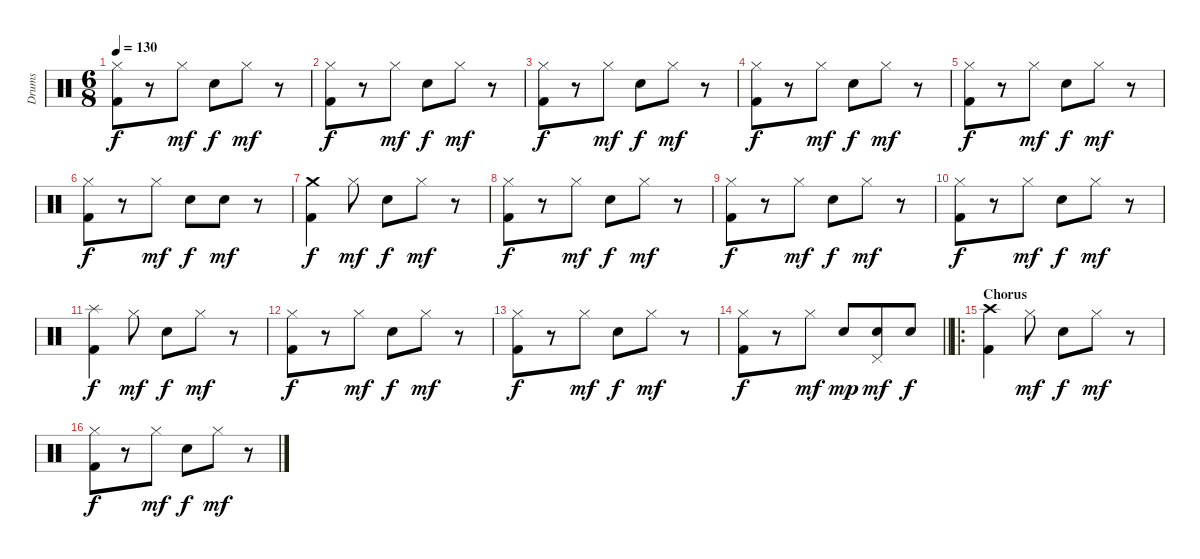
\track ("Drums" "Drums") {instrument percussion}
\staff {score}
\articulation defaults
\ts (6 8)
\tempo 130
\clef neutral
\ks c
("Hi-Hat (closed)" "Kick (hit) 2").8{dy f} r.8 "Hi-Hat (closed)".8{dy mf} "Snare (hit) 2".8{dy f} "Hi-Hat (closed)".8{dy mf} r.8 |
("Hi-Hat (closed)" "Kick (hit) 2").8{dy f} r.8 "Hi-Hat (closed)".8{dy mf} "Snare (hit) 2".8{dy f} "Hi-Hat (closed)".8{dy mf} r.8 |
("Hi-Hat (closed)" "Kick (hit) 2").8{dy f} r.8 "Hi-Hat (closed)".8{dy mf} "Snare (hit) 2".8{dy f} "Hi-Hat (closed)".8{dy mf} r.8 |
("Hi-Hat (closed)" "Kick (hit) 2").8{dy f} r.8 "Hi-Hat (closed)".8{dy mf} "Snare (hit) 2".8{dy f} "Hi-Hat (closed)".8{dy mf} r.8 |
("Hi-Hat (closed)" "Kick (hit) 2").8{dy f} r.8 "Hi-Hat (closed)".8{dy mf} "Snare (hit) 2".8{dy f} "Hi-Hat (closed)".8{dy mf} r.8 |
("Hi-Hat (closed)" "Kick (hit) 2").8{dy f} r.8 "Hi-Hat (closed)".8{dy mf} "Snare (hit) 2".8{dy f} "Snare (hit) 2".8{dy mf} r.8 |
("Crash medium (hit)" "Kick (hit) 2").4{dy f} "Hi-Hat (closed)".8{dy mf} "Snare (hit) 2".8{dy f} "Hi-Hat (closed)".8{dy mf} r.8 |
("Hi-Hat (closed)" "Kick (hit) 2").8{dy f} r.8 "Hi-Hat (closed)".8{dy mf} "Snare (hit) 2".8{dy f} "Hi-Hat (closed)".8{dy mf} r.8 |
("Hi-Hat (closed)" "Kick (hit) 2").8{dy f} r.8 "Hi-Hat (closed)".8{dy mf} "Snare (hit) 2".8{dy f} "Hi-Hat (closed)".8{dy mf} r.8 |
("Hi-Hat (closed)" "Kick (hit) 2").8{dy f} r.8 "Hi-Hat (closed)".8{dy mf} "Snare (hit) 2".8{dy f} "Hi-Hat (closed)".8{dy mf} r.8 |
("Splash (hit)" "Kick (hit) 2").4{dy f} "Hi-Hat (closed)".8{dy mf} "Snare (hit) 2".8{dy f} "Hi-Hat (closed)".8{dy mf} r.8 |
("Hi-Hat (closed)" "Kick (hit) 2").8{dy f} r.8 "Hi-Hat (closed)".8{dy mf} "Snare (hit) 2".8{dy f} "Hi-Hat (closed)".8{dy mf} r.8 |
("Hi-Hat (closed)" "Kick (hit) 2").8{dy f} r.8 "Hi-Hat (closed)".8{dy mf} "Snare (hit) 2".8{dy f} "Hi-Hat (closed)".8{dy mf} r.8 |
\barLineRight lightlight
("Hi-Hat (closed)" "Kick (hit) 2").8{dy f} r.8 "Hi-Hat (closed)".8{dy mf} "Snare (hit) 2".8{dy mp} ("Pedal Hi-Hat (hit)" "Snare (hit) 2").8{dy mf} "Snare (hit) 2".8{dy f} |
\ro
\section ("" "Chorus")
("Crash high (hit)" "Kick (hit) 2").4 "Hi-Hat (closed)".8{dy mf} "Snare (hit) 2".8{dy f} "Hi-Hat (closed)".8{dy mf} r.8 |
("Hi-Hat (closed)" "Kick (hit) 2").8{dy f} r.8 "Hi-Hat (closed)".8{dy mf} "Snare (hit) 2".8{dy f} "Hi-Hat (closed)".8{dy mf} r.8
